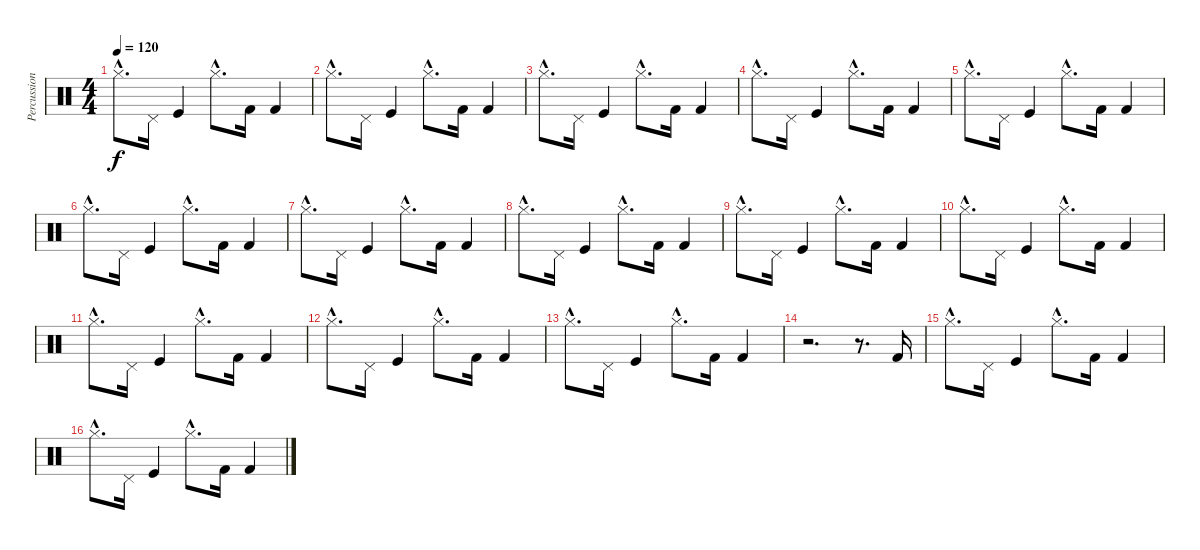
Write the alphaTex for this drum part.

\track ("Percussions" "Percussion") {instrument percussion}
\staff {score}
\articulation defaults
\ts (4 4)
\tempo 120
\clef neutral
\ks c "Hi-Hat (closed)"{hac}.8{d dy f} "Pedal Hi-Hat (hit)".16 "Kick (hit)".4 "Hi-Hat (closed)"{hac}.8{d} "Kick (hit) 2".16 "Kick (hit) 2".4
|
"Hi-Hat (closed)"{hac}.8{d} "Pedal Hi-Hat (hit)".16 "Kick (hit)".4 "Hi-Hat (closed)"{hac}.8{d} "Kick (hit) 2".16 "Kick (hit) 2".4 |
"Hi-Hat (closed)"{hac}.8{d} "Pedal Hi-Hat (hit)".16 "Kick (hit)".4 "Hi-Hat (closed)"{hac}.8{d} "Kick (hit) 2".16 "Kick (hit) 2".4 |
"Hi-Hat (closed)"{hac}.8{d} "Pedal Hi-Hat (hit)".16 "Kick (hit)".4 "Hi-Hat (closed)"{hac}.8{d} "Kick (hit) 2".16 "Kick (hit) 2".4 |
"Hi-Hat (closed)"{hac}.8{d} "Pedal Hi-Hat (hit)".16 "Kick (hit)".4 "Hi-Hat (closed)"{hac}.8{d} "Kick (hit) 2".16 "Kick (hit) 2".4 |
"Hi-Hat (closed)"{hac}.8{d} "Pedal Hi-Hat (hit)".16 "Kick (hit)".4 "Hi-Hat (closed)"{hac}.8{d} "Kick (hit) 2".16 "Kick (hit) 2".4 |
"Hi-Hat (closed)"{hac}.8{d} "Pedal Hi-Hat (hit)".16 "Kick (hit)".4 "Hi-Hat (closed)"{hac}.8{d} "Kick (hit) 2".16 "Kick (hit) 2".4 |
"Hi-Hat (closed)"{hac}.8{d} "Pedal Hi-Hat (hit)".16 "Kick (hit)".4 "Hi-Hat (closed)"{hac}.8{d} "Kick (hit) 2".16 "Kick (hit) 2".4 |
"Hi-Hat (closed)"{hac}.8{d} "Pedal Hi-Hat (hit)".16 "Kick (hit)".4 "Hi-Hat (closed)"{hac}.8{d} "Kick (hit) 2".16 "Kick (hit) 2".4 |
"Hi-Hat (closed)"{hac}.8{d} "Pedal Hi-Hat (hit)".16 "Kick (hit)".4 "Hi-Hat (closed)"{hac}.8{d} "Kick (hit) 2".16 "Kick (hit) 2".4 |
"Hi-Hat (closed)"{hac}.8{d} "Pedal Hi-Hat (hit)".16 "Kick (hit)".4 "Hi-Hat (closed)"{hac}.8{d} "Kick (hit) 2".16 "Kick (hit) 2".4 |
"Hi-Hat (closed)"{hac}.8{d} "Pedal Hi-Hat (hit)".16 "Kick (hit)".4 "Hi-Hat (closed)"{hac}.8{d} "Kick (hit) 2".16 "Kick (hit) 2".4 |
"Hi-Hat (closed)"{hac}.8{d} "Pedal Hi-Hat (hit)".16 "Kick (hit)".4 "Hi-Hat (closed)"{hac}.8{d} "Kick (hit) 2".16 "Kick (hit) 2".4 |
r.2{d} r.8{d} "Kick (hit) 2".16 |
"Hi-Hat (closed)"{hac}.8{d} "Pedal Hi-Hat (hit)".16 "Kick (hit)".4 "Hi-Hat (closed)"{hac}.8{d} "Kick (hit) 2".16 "Kick (hit) 2".4 |
"Hi-Hat (closed)"{hac}.8{d} "Pedal Hi-Hat (hit)".16 "Kick (hit)".4 "Hi-Hat (closed)"{hac}.8{d} "Kick (hit) 2".16 "Kick (hit) 2".4
